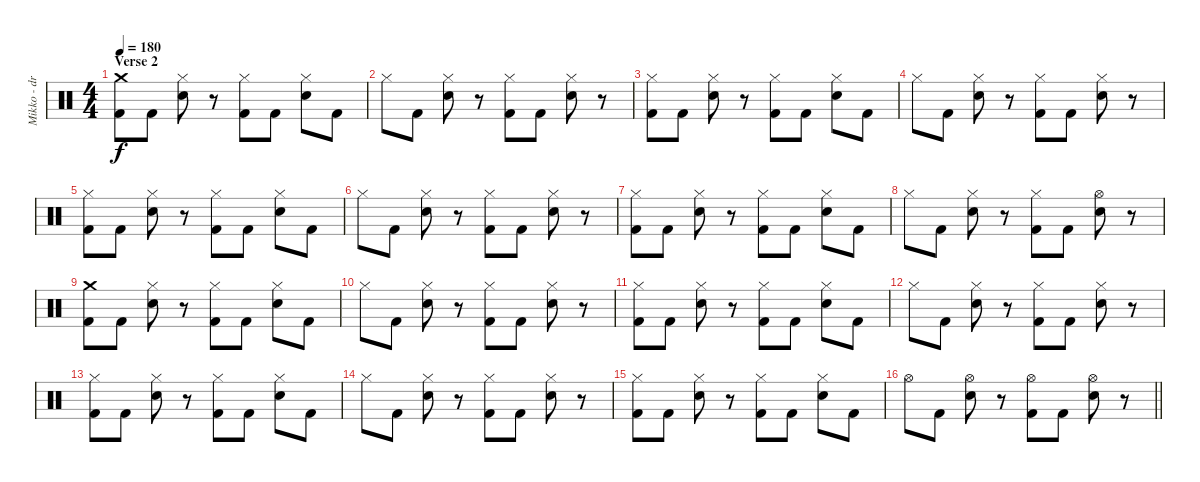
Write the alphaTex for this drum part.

\track ("Mikko - drums" "Mikko - dr") {instrument percussion}
\staff {score}
\articulation defaults
\ts (4 4)
\section ("" "Verse 2")
\tempo 180
\clef neutral
\ks c
("Crash medium (hit)" "Kick (hit) 2").8{dy f} "Kick (hit) 2".8 ("Hi-Hat (closed)" "Snare (hit) 2").8 r.8 ("Hi-Hat (closed)" "Kick (hit) 2").8 "Kick (hit) 2".8 ("Hi-Hat (closed)" "Snare (hit) 2").8 "Kick (hit) 2".8 |
"Hi-Hat (closed)".8 "Kick (hit) 2".8 ("Hi-Hat (closed)" "Snare (hit) 2").8 r.8 ("Hi-Hat (closed)" "Kick (hit) 2").8 "Kick (hit) 2".8 ("Hi-Hat (closed)" "Snare (hit) 2").8 r.8 |
("Hi-Hat (closed)" "Kick (hit) 2").8 "Kick (hit) 2".8 ("Hi-Hat (closed)" "Snare (hit) 2").8 r.8 ("Hi-Hat (closed)" "Kick (hit) 2").8 "Kick (hit) 2".8 ("Hi-Hat (closed)" "Snare (hit) 2").8 "Kick (hit) 2".8 |
"Hi-Hat (closed)".8 "Kick (hit) 2".8 ("Hi-Hat (closed)" "Snare (hit) 2").8 r.8 ("Hi-Hat (closed)" "Kick (hit) 2").8 "Kick (hit) 2".8 ("Hi-Hat (closed)" "Snare (hit) 2").8 r.8 |
("Hi-Hat (closed)" "Kick (hit) 2").8 "Kick (hit) 2".8 ("Hi-Hat (closed)" "Snare (hit) 2").8 r.8 ("Hi-Hat (closed)" "Kick (hit) 2").8 "Kick (hit) 2".8 ("Hi-Hat (closed)" "Snare (hit) 2").8 "Kick (hit) 2".8 |
"Hi-Hat (closed)".8 "Kick (hit) 2".8 ("Hi-Hat (closed)" "Snare (hit) 2").8 r.8 ("Hi-Hat (closed)" "Kick (hit) 2").8 "Kick (hit) 2".8 ("Hi-Hat (closed)" "Snare (hit) 2").8 r.8 |
("Hi-Hat (closed)" "Kick (hit) 2").8 "Kick (hit) 2".8 ("Hi-Hat (closed)" "Snare (hit) 2").8 r.8 ("Hi-Hat (closed)" "Kick (hit) 2").8 "Kick (hit) 2".8 ("Hi-Hat (closed)" "Snare (hit) 2").8 "Kick (hit) 2".8 |
"Hi-Hat (closed)".8 "Kick (hit) 2".8 ("Hi-Hat (closed)" "Snare (hit) 2").8 r.8 ("Hi-Hat (closed)" "Kick (hit) 2").8 "Kick (hit) 2".8 ("Hi-Hat (open)" "Snare (hit) 2").8 r.8 |
("Crash medium (hit)" "Kick (hit) 2").8 "Kick (hit) 2".8 ("Hi-Hat (closed)" "Snare (hit) 2").8 r.8 ("Hi-Hat (closed)" "Kick (hit) 2").8 "Kick (hit) 2".8 ("Hi-Hat (closed)" "Snare (hit) 2").8 "Kick (hit) 2".8 |
"Hi-Hat (closed)".8 "Kick (hit) 2".8 ("Hi-Hat (closed)" "Snare (hit) 2").8 r.8 ("Hi-Hat (closed)" "Kick (hit) 2").8 "Kick (hit) 2".8 ("Hi-Hat (closed)" "Snare (hit) 2").8 r.8 |
("Hi-Hat (closed)" "Kick (hit) 2").8 "Kick (hit) 2".8 ("Hi-Hat (closed)" "Snare (hit) 2").8 r.8 ("Hi-Hat (closed)" "Kick (hit) 2").8 "Kick (hit) 2".8 ("Hi-Hat (closed)" "Snare (hit) 2").8 "Kick (hit) 2".8 |
"Hi-Hat (closed)".8 "Kick (hit) 2".8 ("Hi-Hat (closed)" "Snare (hit) 2").8 r.8 ("Hi-Hat (closed)" "Kick (hit) 2").8 "Kick (hit) 2".8 ("Hi-Hat (closed)" "Snare (hit) 2").8 r.8 |
("Hi-Hat (closed)" "Kick (hit) 2").8 "Kick (hit) 2".8 ("Hi-Hat (closed)" "Snare (hit) 2").8 r.8 ("Hi-Hat (closed)" "Kick (hit) 2").8 "Kick (hit) 2".8 ("Hi-Hat (closed)" "Snare (hit) 2").8 "Kick (hit) 2".8 |
"Hi-Hat (closed)".8 "Kick (hit) 2".8 ("Hi-Hat (closed)" "Snare (hit) 2").8 r.8 ("Hi-Hat (closed)" "Kick (hit) 2").8 "Kick (hit) 2".8 ("Hi-Hat (closed)" "Snare (hit) 2").8 r.8 |
("Hi-Hat (closed)" "Kick (hit) 2").8 "Kick (hit) 2".8 ("Hi-Hat (closed)" "Snare (hit) 2").8 r.8 ("Hi-Hat (closed)" "Kick (hit) 2").8 "Kick (hit) 2".8 ("Hi-Hat (closed)" "Snare (hit) 2").8 "Kick (hit) 2".8 |
\barLineRight lightlight "Hi-Hat (open)".8 "Kick (hit) 2".8
("Hi-Hat (open)" "Snare (hit) 2").8 r.8 ("Hi-Hat (open)" "Kick (hit) 2").8 "Kick (hit) 2".8 ("Hi-Hat (open)" "Snare (hit) 2").8 r.8
